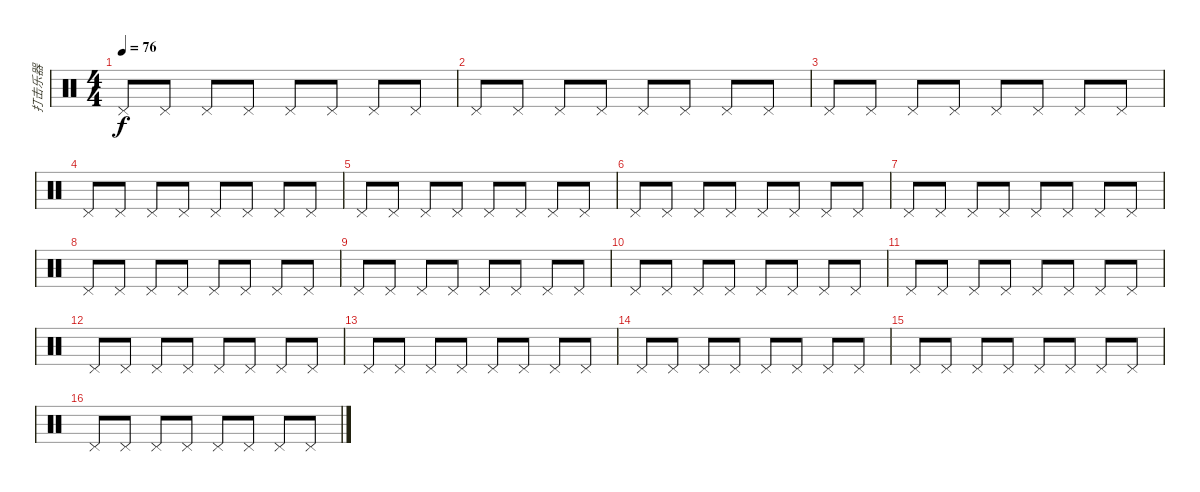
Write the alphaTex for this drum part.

\track ("打击乐器" "打击乐器") {instrument percussion}
\staff {score}
\articulation defaults
\ts (4 4)
\tempo 76
\clef neutral
\ks c "Pedal Hi-Hat (hit)".8{dy f} "Pedal Hi-Hat (hit)".8 "Pedal Hi-Hat (hit)".8 "Pedal Hi-Hat (hit)".8 "Pedal Hi-Hat (hit)".8 "Pedal Hi-Hat (hit)".8 "Pedal Hi-Hat (hit)".8 "Pedal Hi-Hat (hit)".8
|
"Pedal Hi-Hat (hit)".8 "Pedal Hi-Hat (hit)".8 "Pedal Hi-Hat (hit)".8 "Pedal Hi-Hat (hit)".8 "Pedal Hi-Hat (hit)".8 "Pedal Hi-Hat (hit)".8 "Pedal Hi-Hat (hit)".8 "Pedal Hi-Hat (hit)".8 |
"Pedal Hi-Hat (hit)".8 "Pedal Hi-Hat (hit)".8 "Pedal Hi-Hat (hit)".8 "Pedal Hi-Hat (hit)".8 "Pedal Hi-Hat (hit)".8 "Pedal Hi-Hat (hit)".8 "Pedal Hi-Hat (hit)".8 "Pedal Hi-Hat (hit)".8 |
"Pedal Hi-Hat (hit)".8 "Pedal Hi-Hat (hit)".8 "Pedal Hi-Hat (hit)".8 "Pedal Hi-Hat (hit)".8 "Pedal Hi-Hat (hit)".8 "Pedal Hi-Hat (hit)".8 "Pedal Hi-Hat (hit)".8 "Pedal Hi-Hat (hit)".8 |
"Pedal Hi-Hat (hit)".8 "Pedal Hi-Hat (hit)".8 "Pedal Hi-Hat (hit)".8 "Pedal Hi-Hat (hit)".8 "Pedal Hi-Hat (hit)".8 "Pedal Hi-Hat (hit)".8 "Pedal Hi-Hat (hit)".8 "Pedal Hi-Hat (hit)".8 |
"Pedal Hi-Hat (hit)".8 "Pedal Hi-Hat (hit)".8 "Pedal Hi-Hat (hit)".8 "Pedal Hi-Hat (hit)".8 "Pedal Hi-Hat (hit)".8 "Pedal Hi-Hat (hit)".8 "Pedal Hi-Hat (hit)".8 "Pedal Hi-Hat (hit)".8 |
"Pedal Hi-Hat (hit)".8 "Pedal Hi-Hat (hit)".8 "Pedal Hi-Hat (hit)".8 "Pedal Hi-Hat (hit)".8 "Pedal Hi-Hat (hit)".8 "Pedal Hi-Hat (hit)".8 "Pedal Hi-Hat (hit)".8 "Pedal Hi-Hat (hit)".8 |
"Pedal Hi-Hat (hit)".8 "Pedal Hi-Hat (hit)".8 "Pedal Hi-Hat (hit)".8 "Pedal Hi-Hat (hit)".8 "Pedal Hi-Hat (hit)".8 "Pedal Hi-Hat (hit)".8 "Pedal Hi-Hat (hit)".8 "Pedal Hi-Hat (hit)".8 |
"Pedal Hi-Hat (hit)".8 "Pedal Hi-Hat (hit)".8 "Pedal Hi-Hat (hit)".8 "Pedal Hi-Hat (hit)".8 "Pedal Hi-Hat (hit)".8 "Pedal Hi-Hat (hit)".8 "Pedal Hi-Hat (hit)".8 "Pedal Hi-Hat (hit)".8 |
"Pedal Hi-Hat (hit)".8 "Pedal Hi-Hat (hit)".8 "Pedal Hi-Hat (hit)".8 "Pedal Hi-Hat (hit)".8 "Pedal Hi-Hat (hit)".8 "Pedal Hi-Hat (hit)".8 "Pedal Hi-Hat (hit)".8 "Pedal Hi-Hat (hit)".8 |
"Pedal Hi-Hat (hit)".8 "Pedal Hi-Hat (hit)".8 "Pedal Hi-Hat (hit)".8 "Pedal Hi-Hat (hit)".8 "Pedal Hi-Hat (hit)".8 "Pedal Hi-Hat (hit)".8 "Pedal Hi-Hat (hit)".8 "Pedal Hi-Hat (hit)".8 |
"Pedal Hi-Hat (hit)".8 "Pedal Hi-Hat (hit)".8 "Pedal Hi-Hat (hit)".8 "Pedal Hi-Hat (hit)".8 "Pedal Hi-Hat (hit)".8 "Pedal Hi-Hat (hit)".8 "Pedal Hi-Hat (hit)".8 "Pedal Hi-Hat (hit)".8 |
"Pedal Hi-Hat (hit)".8 "Pedal Hi-Hat (hit)".8 "Pedal Hi-Hat (hit)".8 "Pedal Hi-Hat (hit)".8 "Pedal Hi-Hat (hit)".8 "Pedal Hi-Hat (hit)".8 "Pedal Hi-Hat (hit)".8 "Pedal Hi-Hat (hit)".8 |
"Pedal Hi-Hat (hit)".8 "Pedal Hi-Hat (hit)".8 "Pedal Hi-Hat (hit)".8 "Pedal Hi-Hat (hit)".8 "Pedal Hi-Hat (hit)".8 "Pedal Hi-Hat (hit)".8 "Pedal Hi-Hat (hit)".8 "Pedal Hi-Hat (hit)".8 |
"Pedal Hi-Hat (hit)".8 "Pedal Hi-Hat (hit)".8 "Pedal Hi-Hat (hit)".8 "Pedal Hi-Hat (hit)".8 "Pedal Hi-Hat (hit)".8 "Pedal Hi-Hat (hit)".8 "Pedal Hi-Hat (hit)".8 "Pedal Hi-Hat (hit)".8 |
"Pedal Hi-Hat (hit)".8 "Pedal Hi-Hat (hit)".8 "Pedal Hi-Hat (hit)".8 "Pedal Hi-Hat (hit)".8 "Pedal Hi-Hat (hit)".8 "Pedal Hi-Hat (hit)".8 "Pedal Hi-Hat (hit)".8 "Pedal Hi-Hat (hit)".8
